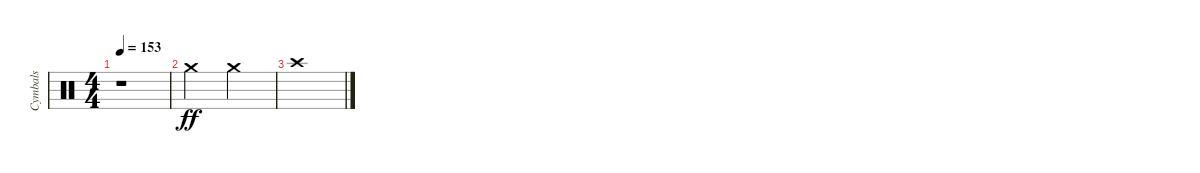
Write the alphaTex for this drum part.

\track ("Cymbals" "Cymbals") {instrument percussion}
\staff {score}
\articulation defaults
\ts (4 4)
\tempo 153
\clef neutral
\ks c
r.1{dy ff} |
"Crash medium (hit)".2 "Crash medium (hit)".2 |
"Crash high (hit)".1
